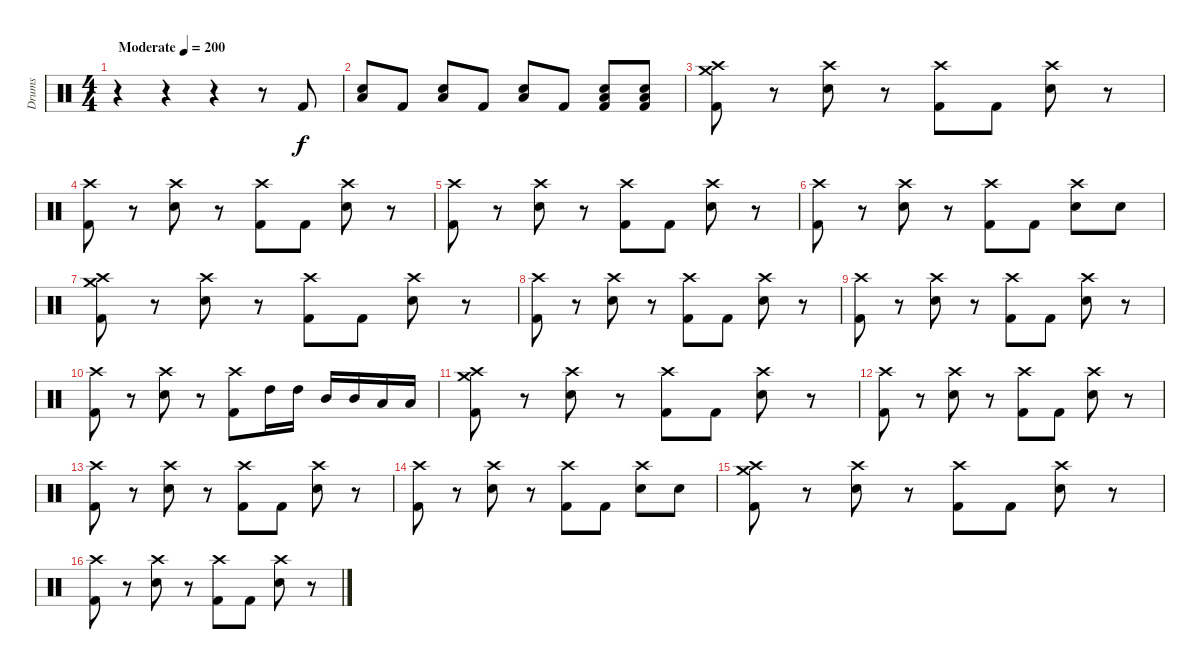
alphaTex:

\track ("Drums" "Drums") {instrument percussion}
\staff {score}
\articulation defaults
\ts (4 4)
\section ("" "")
\tempo (200 "Moderate")
\clef neutral
\ks c
r.4{dy f} r.4 r.4 r.8 "Kick (hit) 2".8 |
("Low Tom (hit)" "Snare (hit) 2").8 "Kick (hit) 2".8 ("Low Tom (hit)" "Snare (hit) 2").8 "Kick (hit) 2".8 ("Low Tom (hit)" "Snare (hit) 2").8 "Kick (hit) 2".8 ("Low Tom (hit)" "Snare (hit) 2" "Kick (hit) 2").8 ("Low Tom (hit)" "Snare (hit) 2" "Kick (hit) 2").8 |
("Crash high (hit)" "Crash medium (hit)" "Kick (hit) 2").8 r.8 ("Crash high (hit)" "Snare (hit) 2").8 r.8 ("Crash high (hit)" "Kick (hit) 2").8 "Kick (hit) 2".8 ("Crash high (hit)" "Snare (hit) 2").8 r.8 |
("Crash high (hit)" "Kick (hit) 2").8 r.8 ("Crash high (hit)" "Snare (hit) 2").8 r.8 ("Crash high (hit)" "Kick (hit) 2").8 "Kick (hit) 2".8 ("Crash high (hit)" "Snare (hit) 2").8 r.8 |
("Crash high (hit)" "Kick (hit) 2").8 r.8 ("Crash high (hit)" "Snare (hit) 2").8 r.8 ("Crash high (hit)" "Kick (hit) 2").8 "Kick (hit) 2".8 ("Crash high (hit)" "Snare (hit) 2").8 r.8 |
("Crash high (hit)" "Kick (hit) 2").8 r.8 ("Crash high (hit)" "Snare (hit) 2").8 r.8 ("Crash high (hit)" "Kick (hit) 2").8 "Kick (hit) 2".8 ("Crash high (hit)" "Snare (hit) 2").8 "Snare (hit) 2".8 |
("Crash high (hit)" "Crash medium (hit)" "Kick (hit) 2").8 r.8 ("Crash high (hit)" "Snare (hit) 2").8 r.8 ("Crash high (hit)" "Kick (hit) 2").8 "Kick (hit) 2".8 ("Crash high (hit)" "Snare (hit) 2").8 r.8 |
("Crash high (hit)" "Kick (hit) 2").8 r.8 ("Crash high (hit)" "Snare (hit) 2").8 r.8 ("Crash high (hit)" "Kick (hit) 2").8 "Kick (hit) 2".8 ("Crash high (hit)" "Snare (hit) 2").8 r.8 |
("Crash high (hit)" "Kick (hit) 2").8 r.8 ("Crash high (hit)" "Snare (hit) 2").8 r.8 ("Crash high (hit)" "Kick (hit) 2").8 "Kick (hit) 2".8 ("Crash high (hit)" "Snare (hit) 2").8 r.8 |
("Crash high (hit)" "Kick (hit) 2").8 r.8 ("Crash high (hit)" "Snare (hit) 2").8 r.8 ("Crash high (hit)" "Kick (hit) 2").8 "High Tom (hit)".16 "High Tom (hit)".16 "Mid Tom (hit)".16 "Mid Tom (hit)".16 "Low Tom (hit)".16 "Low Tom (hit)".16 |
("Crash high (hit)" "Crash medium (hit)" "Kick (hit) 2").8 r.8 ("Crash high (hit)" "Snare (hit) 2").8 r.8 ("Crash high (hit)" "Kick (hit) 2").8 "Kick (hit) 2".8 ("Crash high (hit)" "Snare (hit) 2").8 r.8 |
("Crash high (hit)" "Kick (hit) 2").8 r.8 ("Crash high (hit)" "Snare (hit) 2").8 r.8 ("Crash high (hit)" "Kick (hit) 2").8 "Kick (hit) 2".8 ("Crash high (hit)" "Snare (hit) 2").8 r.8 |
("Crash high (hit)" "Kick (hit) 2").8 r.8 ("Crash high (hit)" "Snare (hit) 2").8 r.8 ("Crash high (hit)" "Kick (hit) 2").8 "Kick (hit) 2".8 ("Crash high (hit)" "Snare (hit) 2").8 r.8 |
("Crash high (hit)" "Kick (hit) 2").8 r.8 ("Crash high (hit)" "Snare (hit) 2").8 r.8 ("Crash high (hit)" "Kick (hit) 2").8 "Kick (hit) 2".8 ("Crash high (hit)" "Snare (hit) 2").8 "Snare (hit) 2".8 |
("Crash high (hit)" "Crash medium (hit)" "Kick (hit) 2").8 r.8 ("Crash high (hit)" "Snare (hit) 2").8 r.8 ("Crash high (hit)" "Kick (hit) 2").8 "Kick (hit) 2".8 ("Crash high (hit)" "Snare (hit) 2").8 r.8 |
("Crash high (hit)" "Kick (hit) 2").8 r.8 ("Crash high (hit)" "Snare (hit) 2").8 r.8 ("Crash high (hit)" "Kick (hit) 2").8 "Kick (hit) 2".8 ("Crash high (hit)" "Snare (hit) 2").8 r.8
